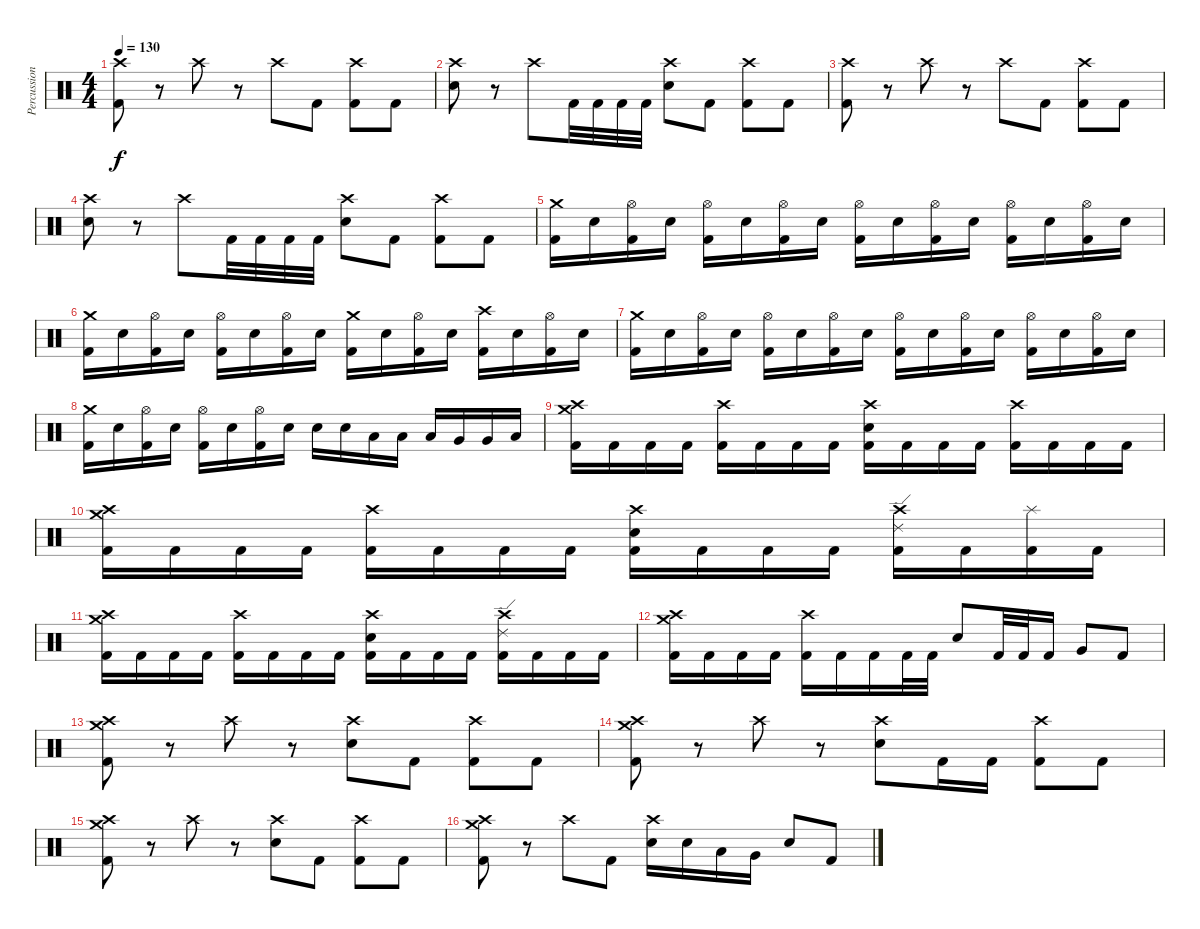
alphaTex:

\track ("Percussion" "Percussion") {instrument percussion}
\staff {score}
\articulation defaults
\ts (4 4)
\tempo 130
\clef neutral
\ks c
("Crash high (hit)" "Kick (hit) 2").8{dy f} r.8 "Crash high (hit)".8 r.8 "Crash high (hit)".8 "Kick (hit) 2".8 ("Crash high (hit)" "Kick (hit) 2").8 "Kick (hit) 2".8 |
("Crash high (hit)" "Electric Snare (hit)").8 r.8 "Crash high (hit)".8 "Kick (hit) 2".32 "Kick (hit) 2".32 "Kick (hit) 2".32 "Kick (hit) 2".32 ("Crash high (hit)" "Electric Snare (hit)").8 "Kick (hit) 2".8 ("Crash high (hit)" "Kick (hit) 2").8 "Kick (hit) 2".8 |
("Crash high (hit)" "Kick (hit) 2").8 r.8 "Crash high (hit)".8 r.8 "Crash high (hit)".8 "Kick (hit) 2".8 ("Crash high (hit)" "Kick (hit) 2").8 "Kick (hit) 2".8 |
("Crash high (hit)" "Electric Snare (hit)").8 r.8 "Crash high (hit)".8 "Kick (hit) 2".32 "Kick (hit) 2".32 "Kick (hit) 2".32 "Kick (hit) 2".32 ("Crash high (hit)" "Electric Snare (hit)").8 "Kick (hit) 2".8 ("Crash high (hit)" "Kick (hit) 2").8 "Kick (hit) 2".8 |
("Crash medium (hit)" "Kick (hit) 2").16 "Electric Snare (hit)".16 ("Hi-Hat (open)" "Kick (hit) 2").16 "Electric Snare (hit)".16 ("Hi-Hat (open)" "Kick (hit) 2").16 "Electric Snare (hit)".16 ("Hi-Hat (open)" "Kick (hit) 2").16 "Electric Snare (hit)".16 ("Hi-Hat (open)" "Kick (hit) 2").16 "Electric Snare (hit)".16 ("Hi-Hat (open)" "Kick (hit) 2").16 "Electric Snare (hit)".16 ("Hi-Hat (open)" "Kick (hit) 2").16 "Electric Snare (hit)".16 ("Hi-Hat (open)" "Kick (hit) 2").16 "Electric Snare (hit)".16 |
("Crash medium (hit)" "Kick (hit) 2").16 "Electric Snare (hit)".16 ("Hi-Hat (open)" "Kick (hit) 2").16 "Electric Snare (hit)".16 ("Hi-Hat (open)" "Kick (hit) 2").16 "Electric Snare (hit)".16 ("Hi-Hat (open)" "Kick (hit) 2").16 "Electric Snare (hit)".16 ("Crash medium (hit)" "Kick (hit) 2").16 "Electric Snare (hit)".16 ("Hi-Hat (open)" "Kick (hit) 2").16 "Electric Snare (hit)".16 ("Crash high (hit)" "Kick (hit) 2").16 "Electric Snare (hit)".16 ("Hi-Hat (open)" "Kick (hit) 2").16 "Electric Snare (hit)".16 |
("Crash medium (hit)" "Kick (hit) 2").16 "Electric Snare (hit)".16 ("Hi-Hat (open)" "Kick (hit) 2").16 "Electric Snare (hit)".16 ("Hi-Hat (open)" "Kick (hit) 2").16 "Electric Snare (hit)".16 ("Hi-Hat (open)" "Kick (hit) 2").16 "Electric Snare (hit)".16 ("Hi-Hat (open)" "Kick (hit) 2").16 "Electric Snare (hit)".16 ("Hi-Hat (open)" "Kick (hit) 2").16 "Electric Snare (hit)".16 ("Hi-Hat (open)" "Kick (hit) 2").16 "Electric Snare (hit)".16 ("Hi-Hat (open)" "Kick (hit) 2").16 "Electric Snare (hit)".16 |
("Crash medium (hit)" "Kick (hit) 2").16 "Electric Snare (hit)".16 ("Hi-Hat (open)" "Kick (hit) 2").16 "Electric Snare (hit)".16 ("Hi-Hat (open)" "Kick (hit) 2").16 "Electric Snare (hit)".16 ("Hi-Hat (open)" "Kick (hit) 2").16 "Electric Snare (hit)".16 "Electric Snare (hit)".16 "Electric Snare (hit)".16 "Low Tom (hit)".16 "Low Tom (hit)".16 "Low Tom (hit)".16 "Very Low Tom (hit)".16 "Very Low Tom (hit)".16 "Low Floor Tom (hit)".16 |
("Crash medium (hit)" "Crash high (hit)" "Kick (hit) 2").16 "Kick (hit) 2".16 "Kick (hit) 2".16 "Kick (hit) 2".16 ("Crash high (hit)" "Kick (hit) 2").16 "Kick (hit) 2".16 "Kick (hit) 2".16 "Kick (hit) 2".16 ("Crash high (hit)" "Electric Snare (hit)" "Kick (hit) 2").16 "Kick (hit) 2".16 "Kick (hit) 2".16 "Kick (hit) 2".16 ("Crash high (hit)" "Kick (hit) 2").16 "Kick (hit) 2".16 "Kick (hit) 2".16 "Kick (hit) 2".16 |
("Crash medium (hit)" "Crash high (hit)" "Kick (hit) 2").16 "Kick (hit) 2".16 "Kick (hit) 2".16 "Kick (hit) 2".16 ("Crash high (hit)" "Kick (hit) 2").16 "Kick (hit) 2".16 "Kick (hit) 2".16 "Kick (hit) 2".16 ("Crash high (hit)" "Electric Snare (hit)" "Kick (hit) 2").16 "Kick (hit) 2".16 "Kick (hit) 2".16 "Kick (hit) 2".16 ("Ride (edge) 2" "Crash high (hit)" "Kick (hit) 2").16 "Kick (hit) 2".16 ("Splash (hit)" "Kick (hit) 2").16 "Kick (hit) 2".16 |
("Crash medium (hit)" "Crash high (hit)" "Kick (hit) 2").16 "Kick (hit) 2".16 "Kick (hit) 2".16 "Kick (hit) 2".16 ("Crash high (hit)" "Kick (hit) 2").16 "Kick (hit) 2".16 "Kick (hit) 2".16 "Kick (hit) 2".16 ("Crash high (hit)" "Electric Snare (hit)" "Kick (hit) 2").16 "Kick (hit) 2".16 "Kick (hit) 2".16 "Kick (hit) 2".16 ("Ride (edge) 2" "Crash high (hit)" "Kick (hit) 2").16 "Kick (hit) 2".16 "Kick (hit) 2".16 "Kick (hit) 2".16 |
("Crash medium (hit)" "Crash high (hit)" "Kick (hit) 2").16 "Kick (hit) 2".16 "Kick (hit) 2".16 "Kick (hit) 2".16 ("Crash high (hit)" "Kick (hit) 2").16 "Kick (hit) 2".16 "Kick (hit) 2".16 "Kick (hit) 2".32 "Kick (hit) 2".32 "Electric Snare (hit)".8 "Kick (hit) 2".32 "Kick (hit) 2".32 "Kick (hit) 2".16 "Very Low Tom (hit)".8 "Kick (hit) 2".8 |
("Crash medium (hit)" "Crash high (hit)" "Kick (hit) 2").8 r.8 "Crash high (hit)".8 r.8 ("Crash high (hit)" "Electric Snare (hit)").8 "Kick (hit) 2".8 ("Crash high (hit)" "Kick (hit) 2").8 "Kick (hit) 2".8 |
("Crash medium (hit)" "Crash high (hit)" "Kick (hit) 2").8 r.8 "Crash high (hit)".8 r.8 ("Crash high (hit)" "Electric Snare (hit)").8 "Kick (hit) 2".16 "Kick (hit) 2".16 ("Crash high (hit)" "Kick (hit) 2").8 "Kick (hit) 2".8 |
("Crash medium (hit)" "Crash high (hit)" "Kick (hit) 2").8 r.8 "Crash high (hit)".8 r.8 ("Crash high (hit)" "Electric Snare (hit)").8 "Kick (hit) 2".8 ("Crash high (hit)" "Kick (hit) 2").8 "Kick (hit) 2".8 |
("Crash medium (hit)" "Crash high (hit)" "Kick (hit) 2").8 r.8 "Crash high (hit)".8 "Kick (hit) 2".8 ("Crash high (hit)" "Electric Snare (hit)").16 "Electric Snare (hit)".16 "Low Tom (hit)".16 "Very Low Tom (hit)".16 "Electric Snare (hit)".8 "Kick (hit) 2".8
